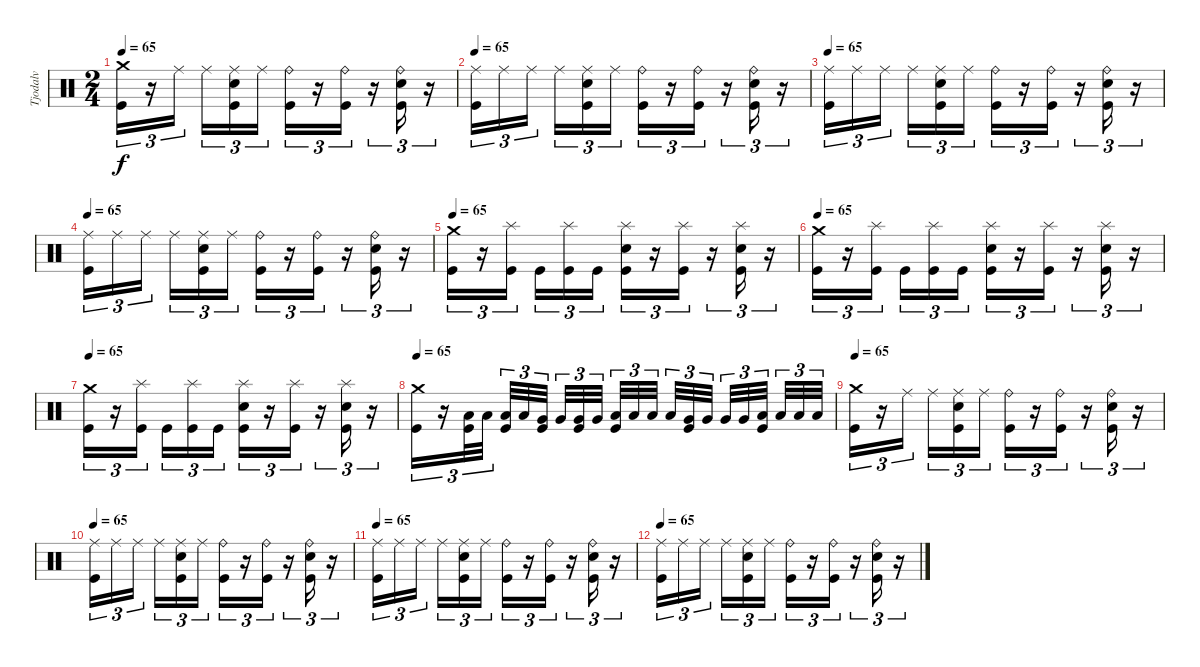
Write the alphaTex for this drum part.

\track ("Tjodalv" "Tjodalv") {instrument percussion}
\staff {score}
\articulation defaults
\ts (2 4)
\tempo 65
\clef neutral
\ks c
("Crash medium (hit)" "Kick (hit)").16{tu (3 2) dy f} r.16{tu (3 2)} "Ride (middle)".16{tu (3 2)} "Ride (middle)".16{tu (3 2)} ("Ride (middle)" "Snare (hit) 2" "Kick (hit)").16{tu (3 2)} "Ride (middle)".16{tu (3 2)} ("Ride (bell)" "Kick (hit)").16{tu (3 2)} r.16{tu (3 2)} ("Ride (bell)" "Kick (hit)").16{tu (3 2)} r.16{tu (3 2)} ("Ride (bell)" "Snare (hit) 2" "Kick (hit)").16{tu (3 2)} r.16{tu (3 2)} |
\tempo 65
("Ride (middle)" "Kick (hit)").16{tu (3 2)} "Ride (middle)".16{tu (3 2)} "Ride (middle)".16{tu (3 2)} "Ride (middle)".16{tu (3 2)} ("Ride (middle)" "Snare (hit) 2" "Kick (hit)").16{tu (3 2)} "Ride (middle)".16{tu (3 2)} ("Ride (bell)" "Kick (hit)").16{tu (3 2)} r.16{tu (3 2)} ("Ride (bell)" "Kick (hit)").16{tu (3 2)} r.16{tu (3 2)} ("Ride (bell)" "Snare (hit) 2" "Kick (hit)").16{tu (3 2)} r.16{tu (3 2)} |
\tempo 65
("Ride (middle)" "Kick (hit)").16{tu (3 2)} "Ride (middle)".16{tu (3 2)} "Ride (middle)".16{tu (3 2)} "Ride (middle)".16{tu (3 2)} ("Ride (middle)" "Snare (hit) 2" "Kick (hit)").16{tu (3 2)} "Ride (middle)".16{tu (3 2)} ("Ride (bell)" "Kick (hit)").16{tu (3 2)} r.16{tu (3 2)} ("Ride (bell)" "Kick (hit)").16{tu (3 2)} r.16{tu (3 2)} ("Ride (bell)" "Snare (hit) 2" "Kick (hit)").16{tu (3 2)} r.16{tu (3 2)} |
\tempo 65
("Ride (middle)" "Kick (hit)").16{tu (3 2)} "Ride (middle)".16{tu (3 2)} "Ride (middle)".16{tu (3 2)} "Ride (middle)".16{tu (3 2)} ("Ride (middle)" "Snare (hit) 2" "Kick (hit)").16{tu (3 2)} "Ride (middle)".16{tu (3 2)} ("Ride (bell)" "Kick (hit)").16{tu (3 2)} r.16{tu (3 2)} ("Ride (bell)" "Kick (hit)").16{tu (3 2)} r.16{tu (3 2)} ("Ride (bell)" "Snare (hit) 2" "Kick (hit)").16{tu (3 2)} r.16{tu (3 2)} |
\tempo 65
("Crash medium (hit)" "Kick (hit)").16{tu (3 2)} r.16{tu (3 2)} ("Splash (hit)" "Kick (hit)").16{tu (3 2)} "Kick (hit)".16{tu (3 2)} ("Splash (hit)" "Kick (hit)").16{tu (3 2)} "Kick (hit)".16{tu (3 2)} ("Splash (hit)" "Snare (hit) 2" "Kick (hit)").16{tu (3 2)} r.16{tu (3 2)} ("Splash (hit)" "Kick (hit)").16{tu (3 2)} r.16{tu (3 2)} ("Splash (hit)" "Snare (hit) 2" "Kick (hit)").16{tu (3 2)} r.16{tu (3 2)} |
\tempo 65
("Crash medium (hit)" "Kick (hit)").16{tu (3 2)} r.16{tu (3 2)} ("Splash (hit)" "Kick (hit)").16{tu (3 2)} "Kick (hit)".16{tu (3 2)} ("Splash (hit)" "Kick (hit)").16{tu (3 2)} "Kick (hit)".16{tu (3 2)} ("Splash (hit)" "Snare (hit) 2" "Kick (hit)").16{tu (3 2)} r.16{tu (3 2)} ("Splash (hit)" "Kick (hit)").16{tu (3 2)} r.16{tu (3 2)} ("Splash (hit)" "Snare (hit) 2" "Kick (hit)").16{tu (3 2)} r.16{tu (3 2)} |
\tempo 65
("Crash medium (hit)" "Kick (hit)").16{tu (3 2)} r.16{tu (3 2)} ("Splash (hit)" "Kick (hit)").16{tu (3 2)} "Kick (hit)".16{tu (3 2)} ("Splash (hit)" "Kick (hit)").16{tu (3 2)} "Kick (hit)".16{tu (3 2)} ("Splash (hit)" "Snare (hit) 2" "Kick (hit)").16{tu (3 2)} r.16{tu (3 2)} ("Splash (hit)" "Kick (hit)").16{tu (3 2)} r.16{tu (3 2)} ("Splash (hit)" "Snare (hit) 2" "Kick (hit)").16{tu (3 2)} r.16{tu (3 2)} |
\tempo 65
("Crash medium (hit)" "Kick (hit)").16{tu (3 2)} r.16{tu (3 2)} ("Low Floor Tom (hit)" "Kick (hit)").32{tu (3 2)} "Low Floor Tom (hit)".32{tu (3 2)} ("Low Floor Tom (hit)" "Kick (hit)").32{tu (3 2)} "Low Floor Tom (hit)".32{tu (3 2)} ("Very Low Tom (hit)" "Kick (hit)").32{tu (3 2)} "Very Low Tom (hit)".32{tu (3 2)} ("Very Low Tom (hit)" "Kick (hit)").32{tu (3 2)} "Very Low Tom (hit)".32{tu (3 2)} ("Low Floor Tom (hit)" "Kick (hit)").32{tu (3 2)} "Low Floor Tom (hit)".32{tu (3 2)} "Low Floor Tom (hit)".32{tu (3 2)} "Low Floor Tom (hit)".32{tu (3 2)} ("Very Low Tom (hit)" "Kick (hit)").32{tu (3 2)} "Very Low Tom (hit)".32{tu (3 2)} "Very Low Tom (hit)".32{tu (3 2)} "Very Low Tom (hit)".32{tu (3 2)} ("Low Tom (hit)" "Kick (hit)").32{tu (3 2)} "Low Tom (hit)".32{tu (3 2)} "Low Tom (hit)".32{tu (3 2)} "Low Tom (hit)".32{tu (3 2)} |
\tempo 65
("Crash medium (hit)" "Kick (hit)").16{tu (3 2)} r.16{tu (3 2)} "Ride (middle)".16{tu (3 2)} "Ride (middle)".16{tu (3 2)} ("Ride (middle)" "Snare (hit) 2" "Kick (hit)").16{tu (3 2)} "Ride (middle)".16{tu (3 2)} ("Ride (bell)" "Kick (hit)").16{tu (3 2)} r.16{tu (3 2)} ("Ride (bell)" "Kick (hit)").16{tu (3 2)} r.16{tu (3 2)} ("Ride (bell)" "Snare (hit) 2" "Kick (hit)").16{tu (3 2)} r.16{tu (3 2)} |
\tempo 65
("Ride (middle)" "Kick (hit)").16{tu (3 2)} "Ride (middle)".16{tu (3 2)} "Ride (middle)".16{tu (3 2)} "Ride (middle)".16{tu (3 2)} ("Ride (middle)" "Snare (hit) 2" "Kick (hit)").16{tu (3 2)} "Ride (middle)".16{tu (3 2)} ("Ride (bell)" "Kick (hit)").16{tu (3 2)} r.16{tu (3 2)} ("Ride (bell)" "Kick (hit)").16{tu (3 2)} r.16{tu (3 2)} ("Ride (bell)" "Snare (hit) 2" "Kick (hit)").16{tu (3 2)} r.16{tu (3 2)} |
\tempo 65
("Ride (middle)" "Kick (hit)").16{tu (3 2)} "Ride (middle)".16{tu (3 2)} "Ride (middle)".16{tu (3 2)} "Ride (middle)".16{tu (3 2)} ("Ride (middle)" "Snare (hit) 2" "Kick (hit)").16{tu (3 2)} "Ride (middle)".16{tu (3 2)} ("Ride (bell)" "Kick (hit)").16{tu (3 2)} r.16{tu (3 2)} ("Ride (bell)" "Kick (hit)").16{tu (3 2)} r.16{tu (3 2)} ("Ride (bell)" "Snare (hit) 2" "Kick (hit)").16{tu (3 2)} r.16{tu (3 2)} |
\tempo 65
("Ride (middle)" "Kick (hit)").16{tu (3 2)} "Ride (middle)".16{tu (3 2)} "Ride (middle)".16{tu (3 2)} "Ride (middle)".16{tu (3 2)} ("Ride (middle)" "Snare (hit) 2" "Kick (hit)").16{tu (3 2)} "Ride (middle)".16{tu (3 2)} ("Ride (bell)" "Kick (hit)").16{tu (3 2)} r.16{tu (3 2)} ("Ride (bell)" "Kick (hit)").16{tu (3 2)} r.16{tu (3 2)} ("Ride (bell)" "Snare (hit) 2" "Kick (hit)").16{tu (3 2)} r.16{tu (3 2)}
